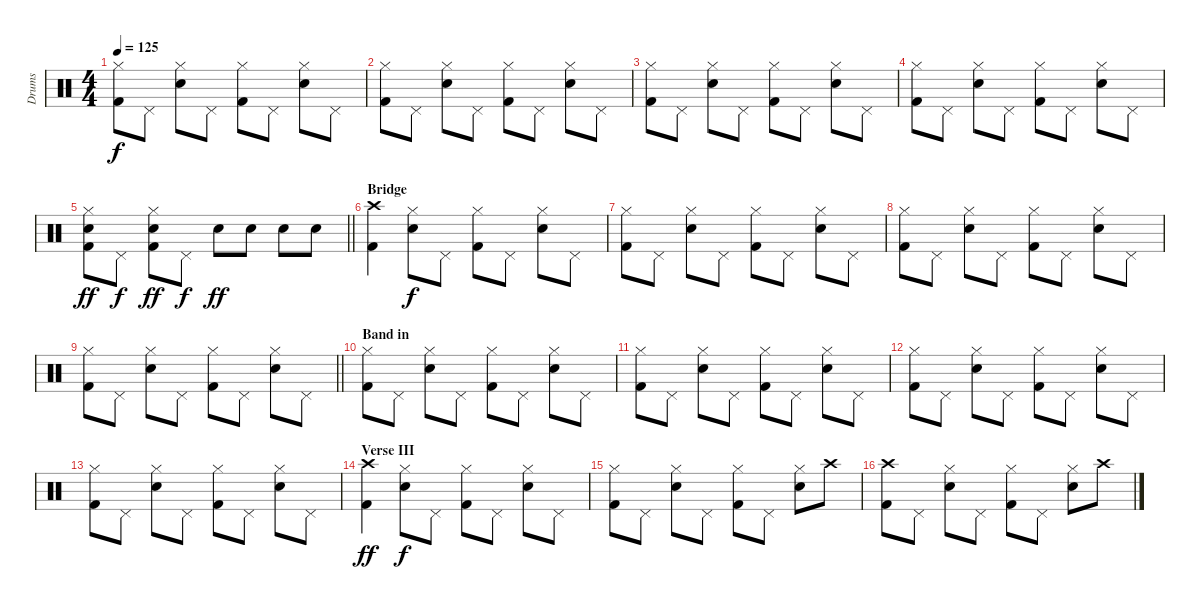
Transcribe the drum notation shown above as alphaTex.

\track ("Drums" "Drums") {instrument percussion}
\staff {score}
\articulation defaults
\ts (4 4)
\tempo 125
\clef neutral
\ks c
("Hi-Hat (closed)" "Kick (hit) 2").8{dy f} "Pedal Hi-Hat (hit)".8 ("Hi-Hat (closed)" "Electric Snare (hit)").8 "Pedal Hi-Hat (hit)".8 ("Hi-Hat (closed)" "Kick (hit) 2").8 "Pedal Hi-Hat (hit)".8 ("Hi-Hat (closed)" "Electric Snare (hit)").8 "Pedal Hi-Hat (hit)".8 |
("Hi-Hat (closed)" "Kick (hit) 2").8 "Pedal Hi-Hat (hit)".8 ("Hi-Hat (closed)" "Electric Snare (hit)").8 "Pedal Hi-Hat (hit)".8 ("Hi-Hat (closed)" "Kick (hit) 2").8 "Pedal Hi-Hat (hit)".8 ("Hi-Hat (closed)" "Electric Snare (hit)").8 "Pedal Hi-Hat (hit)".8 |
("Hi-Hat (closed)" "Kick (hit) 2").8 "Pedal Hi-Hat (hit)".8 ("Hi-Hat (closed)" "Electric Snare (hit)").8 "Pedal Hi-Hat (hit)".8 ("Hi-Hat (closed)" "Kick (hit) 2").8 "Pedal Hi-Hat (hit)".8 ("Hi-Hat (closed)" "Electric Snare (hit)").8 "Pedal Hi-Hat (hit)".8 |
("Hi-Hat (closed)" "Kick (hit) 2").8 "Pedal Hi-Hat (hit)".8 ("Hi-Hat (closed)" "Electric Snare (hit)").8 "Pedal Hi-Hat (hit)".8 ("Hi-Hat (closed)" "Kick (hit) 2").8 "Pedal Hi-Hat (hit)".8 ("Hi-Hat (closed)" "Electric Snare (hit)").8 "Pedal Hi-Hat (hit)".8 |
\barLineRight lightlight
("Hi-Hat (closed)" "Snare (hit) 2" "Kick (hit) 2").8{dy ff} "Pedal Hi-Hat (hit)".8{dy f} ("Hi-Hat (closed)" "Snare (hit) 2" "Kick (hit) 2").8{dy ff} "Pedal Hi-Hat (hit)".8{dy f} "Snare (hit) 2".8{dy ff} "Snare (hit) 2".8 "Snare (hit) 2".8 "Snare (hit) 2".8 |
\section ("" "Bridge")
("Crash high (hit)" "Kick (hit) 2").4 ("Hi-Hat (closed)" "Electric Snare (hit)").8{dy f} "Pedal Hi-Hat (hit)".8 ("Hi-Hat (closed)" "Kick (hit) 2").8 "Pedal Hi-Hat (hit)".8 ("Hi-Hat (closed)" "Electric Snare (hit)").8 "Pedal Hi-Hat (hit)".8 |
("Hi-Hat (closed)" "Kick (hit) 2").8 "Pedal Hi-Hat (hit)".8 ("Hi-Hat (closed)" "Electric Snare (hit)").8 "Pedal Hi-Hat (hit)".8 ("Hi-Hat (closed)" "Kick (hit) 2").8 "Pedal Hi-Hat (hit)".8 ("Hi-Hat (closed)" "Electric Snare (hit)").8 "Pedal Hi-Hat (hit)".8 |
("Hi-Hat (closed)" "Kick (hit) 2").8 "Pedal Hi-Hat (hit)".8 ("Hi-Hat (closed)" "Electric Snare (hit)").8 "Pedal Hi-Hat (hit)".8 ("Hi-Hat (closed)" "Kick (hit) 2").8 "Pedal Hi-Hat (hit)".8 ("Hi-Hat (closed)" "Electric Snare (hit)").8 "Pedal Hi-Hat (hit)".8 |
\barLineRight lightlight
("Hi-Hat (closed)" "Kick (hit) 2").8 "Pedal Hi-Hat (hit)".8 ("Hi-Hat (closed)" "Electric Snare (hit)").8 "Pedal Hi-Hat (hit)".8 ("Hi-Hat (closed)" "Kick (hit) 2").8 "Pedal Hi-Hat (hit)".8 ("Hi-Hat (closed)" "Electric Snare (hit)").8 "Pedal Hi-Hat (hit)".8 |
\section ("" "Band in")
("Hi-Hat (closed)" "Kick (hit) 2").8 "Pedal Hi-Hat (hit)".8 ("Hi-Hat (closed)" "Electric Snare (hit)").8 "Pedal Hi-Hat (hit)".8 ("Hi-Hat (closed)" "Kick (hit) 2").8 "Pedal Hi-Hat (hit)".8 ("Hi-Hat (closed)" "Electric Snare (hit)").8 "Pedal Hi-Hat (hit)".8 |
("Hi-Hat (closed)" "Kick (hit) 2").8 "Pedal Hi-Hat (hit)".8 ("Hi-Hat (closed)" "Electric Snare (hit)").8 "Pedal Hi-Hat (hit)".8 ("Hi-Hat (closed)" "Kick (hit) 2").8 "Pedal Hi-Hat (hit)".8 ("Hi-Hat (closed)" "Electric Snare (hit)").8 "Pedal Hi-Hat (hit)".8 |
("Hi-Hat (closed)" "Kick (hit) 2").8 "Pedal Hi-Hat (hit)".8 ("Hi-Hat (closed)" "Electric Snare (hit)").8 "Pedal Hi-Hat (hit)".8 ("Hi-Hat (closed)" "Kick (hit) 2").8 "Pedal Hi-Hat (hit)".8 ("Hi-Hat (closed)" "Electric Snare (hit)").8 "Pedal Hi-Hat (hit)".8 |
("Hi-Hat (closed)" "Kick (hit) 2").8 "Pedal Hi-Hat (hit)".8 ("Hi-Hat (closed)" "Electric Snare (hit)").8 "Pedal Hi-Hat (hit)".8 ("Hi-Hat (closed)" "Kick (hit) 2").8 "Pedal Hi-Hat (hit)".8 ("Hi-Hat (closed)" "Electric Snare (hit)").8 "Pedal Hi-Hat (hit)".8 |
\section ("" "Verse III")
("Crash high (hit)" "Kick (hit) 2").4{dy ff} ("Hi-Hat (closed)" "Electric Snare (hit)").8{dy f} "Pedal Hi-Hat (hit)".8 ("Hi-Hat (closed)" "Kick (hit) 2").8 "Pedal Hi-Hat (hit)".8 ("Hi-Hat (closed)" "Electric Snare (hit)").8 "Pedal Hi-Hat (hit)".8 |
("Hi-Hat (closed)" "Kick (hit) 2").8 "Pedal Hi-Hat (hit)".8 ("Hi-Hat (closed)" "Electric Snare (hit)").8 "Pedal Hi-Hat (hit)".8 ("Hi-Hat (closed)" "Kick (hit) 2").8 "Pedal Hi-Hat (hit)".8 ("Hi-Hat (closed)" "Electric Snare (hit)").8 "Crash high (hit)".8 |
("Crash high (hit)" "Kick (hit) 2").8 "Pedal Hi-Hat (hit)".8 ("Hi-Hat (closed)" "Electric Snare (hit)").8 "Pedal Hi-Hat (hit)".8 ("Hi-Hat (closed)" "Kick (hit) 2").8 "Pedal Hi-Hat (hit)".8 ("Hi-Hat (closed)" "Electric Snare (hit)").8 "Crash high (hit)".8
